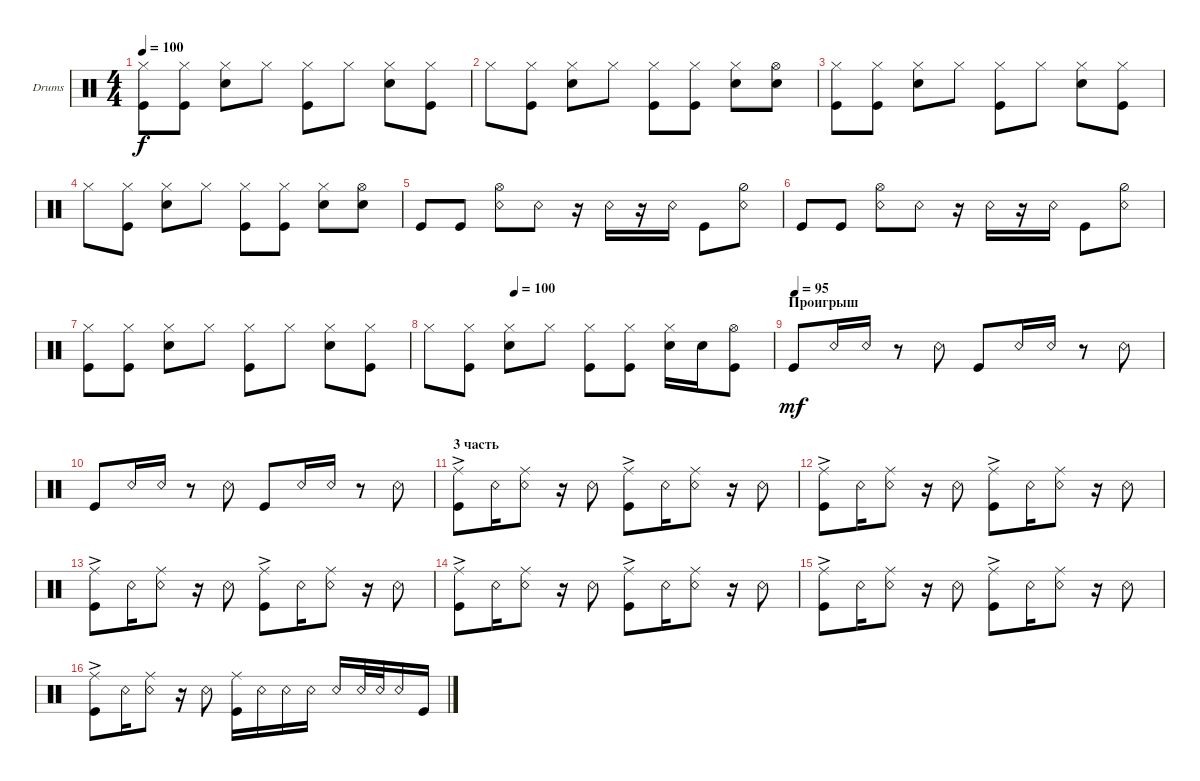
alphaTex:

\defaultSystemsLayout 4
\bracketExtendMode groupsimilarinstruments
\firstSystemTrackNameOrientation horizontal
\otherSystemsTrackNameOrientation horizontal
\track ("Drumkit" "Drums") {instrument percussion}
\staff {score}
\articulation defaults
\ts (4 4)
\tempo 100
\clef neutral
\scale
0.5
\ks c
("Hi-Hat (closed)" "Kick (hit)").8{dy f} ("Hi-Hat (closed)" "Kick (hit)").8 ("Hi-Hat (closed)" "Snare (hit) 2").8 "Hi-Hat (closed)".8 ("Hi-Hat (closed)" "Kick (hit)").8 "Hi-Hat (closed)".8 ("Hi-Hat (closed)" "Snare (hit) 2").8 ("Hi-Hat (closed)" "Kick (hit)").8 |
\scale
0.5 "Hi-Hat (closed)".8 ("Hi-Hat (closed)" "Kick (hit)").8 ("Hi-Hat (closed)" "Snare (hit) 2").8 "Hi-Hat (closed)".8 ("Hi-Hat (closed)" "Kick (hit)").8 ("Hi-Hat (closed)" "Kick (hit)").8 ("Hi-Hat (closed)" "Snare (hit) 2").8 ("Hi-Hat (open)" "Snare (hit) 2").8 |
\scale
0.5 ("Hi-Hat (closed)" "Kick (hit)").8 ("Hi-Hat (closed)" "Kick (hit)").8 ("Hi-Hat (closed)" "Snare (hit) 2").8 "Hi-Hat (closed)".8 ("Hi-Hat (closed)" "Kick (hit)").8 "Hi-Hat (closed)".8 ("Hi-Hat (closed)" "Snare (hit) 2").8 ("Hi-Hat (closed)" "Kick (hit)").8 |
\scale
0.5 "Hi-Hat (closed)".8 ("Hi-Hat (closed)" "Kick (hit)").8 ("Hi-Hat (closed)" "Snare (hit) 2").8 "Hi-Hat (closed)".8 ("Hi-Hat (closed)" "Kick (hit)").8 ("Hi-Hat (closed)" "Kick (hit)").8 ("Hi-Hat (closed)" "Snare (hit) 2").8 ("Hi-Hat (open)" "Snare (hit) 2").8 |
\scale
0.5 "Kick (hit)".8 "Kick (hit)".8 ("Snare (rim shot)" "Hi-Hat (open)").8 "Snare (rim shot)".8 r.16 "Snare (rim shot)".16 r.16 "Snare (rim shot)".16 "Kick (hit)".8 ("Snare (rim shot)" "Hi-Hat (half)").8 |
\scale
0.5 "Kick (hit)".8 "Kick (hit)".8 ("Snare (rim shot)" "Hi-Hat (open)").8 "Snare (rim shot)".8 r.16 "Snare (rim shot)".16 r.16 "Snare (rim shot)".16 "Kick (hit)".8 ("Snare (rim shot)" "Hi-Hat (half)").8 |
\scale
0.5 ("Hi-Hat (closed)" "Kick (hit)").8 ("Hi-Hat (closed)" "Kick (hit)").8 ("Hi-Hat (closed)" "Snare (hit) 2").8 "Hi-Hat (closed)".8 ("Hi-Hat (closed)" "Kick (hit)").8 "Hi-Hat (closed)".8 ("Hi-Hat (closed)" "Snare (hit) 2").8 ("Hi-Hat (closed)" "Kick (hit)").8 |
\tempo (100 0.25)
\scale
0.5 "Hi-Hat (closed)".8 ("Hi-Hat (closed)" "Kick (hit)").8 ("Hi-Hat (closed)" "Snare (hit) 2").8 "Hi-Hat (closed)".8 ("Hi-Hat (closed)" "Kick (hit)").8 ("Hi-Hat (closed)" "Kick (hit)").8 ("Hi-Hat (closed)" "Snare (hit) 2").16 "Snare (hit) 2".16 ("Kick (hit)" "Hi-Hat (open)").8 |
\section ("" "Проигрыш")
\tempo (95 0.00625)
\scale
0.5 "Kick (hit)".8{dy mf} "Snare (rim shot)".16 "Snare (rim shot)".16 r.8 "Snare (rim shot)".8 "Kick (hit)".8 "Snare (rim shot)".16 "Snare (rim shot)".16 r.8 "Snare (rim shot)".8 |
\scale
0.5 "Kick (hit)".8 "Snare (rim shot)".16 "Snare (rim shot)".16 r.8 "Snare (rim shot)".8 "Kick (hit)".8 "Snare (rim shot)".16 "Snare (rim shot)".16 r.8 "Snare (rim shot)".8 |
\section ("" "3 часть")
\scale
0.5 ("Ride (middle)" "Kick (hit)"{ac}).8 "Snare (rim shot)".16 ("Ride (middle)" "Snare (rim shot)").8 r.16 "Snare (rim shot)".8 ("Ride (middle)" "Kick (hit)"{ac}).8 "Snare (rim shot)".16 ("Ride (middle)" "Snare (rim shot)").8 r.16 "Snare (rim shot)".8 |
\scale
0.5 ("Ride (middle)" "Kick (hit)"{ac}).8 "Snare (rim shot)".16 ("Ride (middle)" "Snare (rim shot)").8 r.16 "Snare (rim shot)".8 ("Ride (middle)" "Kick (hit)"{ac}).8 "Snare (rim shot)".16 ("Ride (middle)" "Snare (rim shot)").8 r.16 "Snare (rim shot)".8 |
\scale
0.5 ("Ride (middle)" "Kick (hit)"{ac}).8 "Snare (rim shot)".16 ("Ride (middle)" "Snare (rim shot)").8 r.16 "Snare (rim shot)".8 ("Ride (middle)" "Kick (hit)"{ac}).8 "Snare (rim shot)".16 ("Ride (middle)" "Snare (rim shot)").8 r.16 "Snare (rim shot)".8 |
\scale
0.5 ("Ride (middle)" "Kick (hit)"{ac}).8 "Snare (rim shot)".16 ("Ride (middle)" "Snare (rim shot)").8 r.16 "Snare (rim shot)".8 ("Ride (middle)" "Kick (hit)"{ac}).8 "Snare (rim shot)".16 ("Ride (middle)" "Snare (rim shot)").8 r.16 "Snare (rim shot)".8 |
\scale
0.5 ("Ride (middle)" "Kick (hit)"{ac}).8 "Snare (rim shot)".16 ("Ride (middle)" "Snare (rim shot)").8 r.16 "Snare (rim shot)".8 ("Ride (middle)" "Kick (hit)"{ac}).8 "Snare (rim shot)".16 ("Ride (middle)" "Snare (rim shot)").8 r.16 "Snare (rim shot)".8 |
\scale
0.5 ("Ride (middle)" "Kick (hit)"{ac}).8 "Snare (rim shot)".16 ("Ride (middle)" "Snare (rim shot)").8 r.16 "Snare (rim shot)".8 ("Ride (middle)" "Kick (hit)").16 "Snare (rim shot)".16 "Snare (rim shot)".16 "Snare (rim shot)".16 "Snare (rim shot)".16 "Snare (rim shot)".32 "Snare (rim shot)".32 "Snare (rim shot)".16 "Kick (hit)".16
